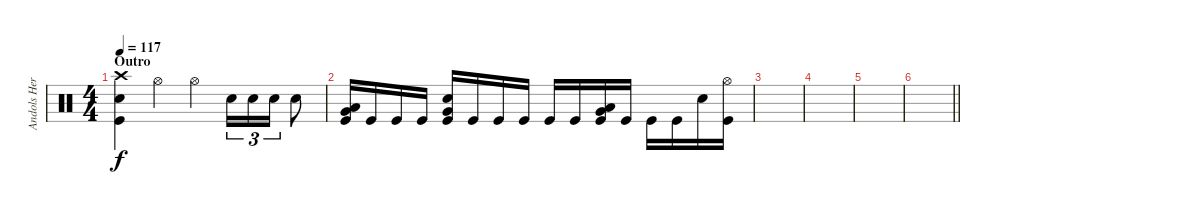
\track ("Andols Herrick" "Andols Her") {instrument percussion}
\staff {score}
\articulation defaults
\ts (4 4)
\section ("" "Outro")
\tempo 117
\clef neutral
\ks c
("Crash high (hit)" "Electric Snare (hit)" "Kick (hit)").4{dy f} "Hi-Hat (open)".4 "Hi-Hat (open)".4 "Electric Snare (hit)".16{tu (3 2)} "Electric Snare (hit)".16{tu (3 2)} "Electric Snare (hit)".16{tu (3 2)} "Electric Snare (hit)".8 |
("Low Tom (hit)" "Very Low Tom (hit)" "Kick (hit)").16 "Kick (hit)".16 "Kick (hit)".16 "Kick (hit)".16 ("Very Low Tom (hit)" "Electric Snare (hit)" "Kick (hit)").16 "Kick (hit)".16 "Kick (hit)".16 "Kick (hit)".16 "Kick (hit)".16 "Kick (hit)".16 ("Very Low Tom (hit)" "Low Floor Tom (hit)" "Kick (hit)").16 "Kick (hit)".16 "Kick (hit)".16 "Kick (hit)".16 "Electric Snare (hit)".16 ("Hi-Hat (open)" "Kick (hit)").16 |
|
|
|
\barLineRight lightlight
